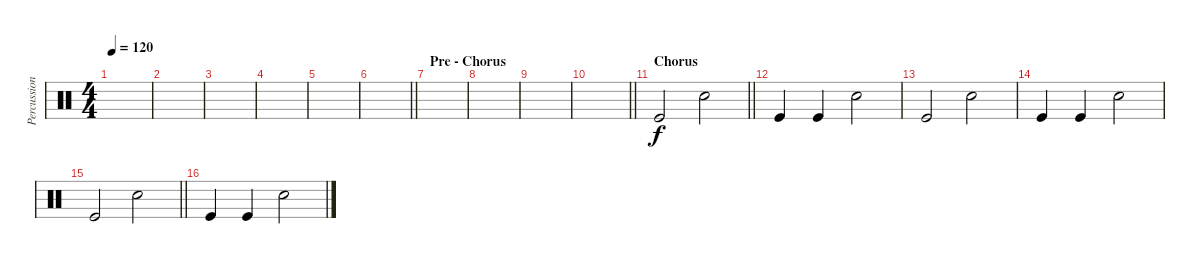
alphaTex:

\track ("Percussion" "Percussion") {instrument percussion}
\staff {score}
\articulation defaults
\ts (4 4)
\tempo 120
\clef neutral
\ks c
|
|
|
|
|
\barLineRight lightlight
|
\section ("" "Pre - Chorus")
|
|
|
\barLineRight lightlight
|
\section ("" "Chorus")
\barLineRight lightlight "Kick (hit)".2 "Snare (hit) 2".2
|
"Kick (hit)".4 "Kick (hit)".4 "Snare (hit) 2".2 |
"Kick (hit)".2 "Snare (hit) 2".2 |
"Kick (hit)".4 "Kick (hit)".4 "Snare (hit) 2".2 |
\barLineRight lightlight "Kick (hit)".2 "Snare (hit) 2".2
|
"Kick (hit)".4 "Kick (hit)".4 "Snare (hit) 2".2
